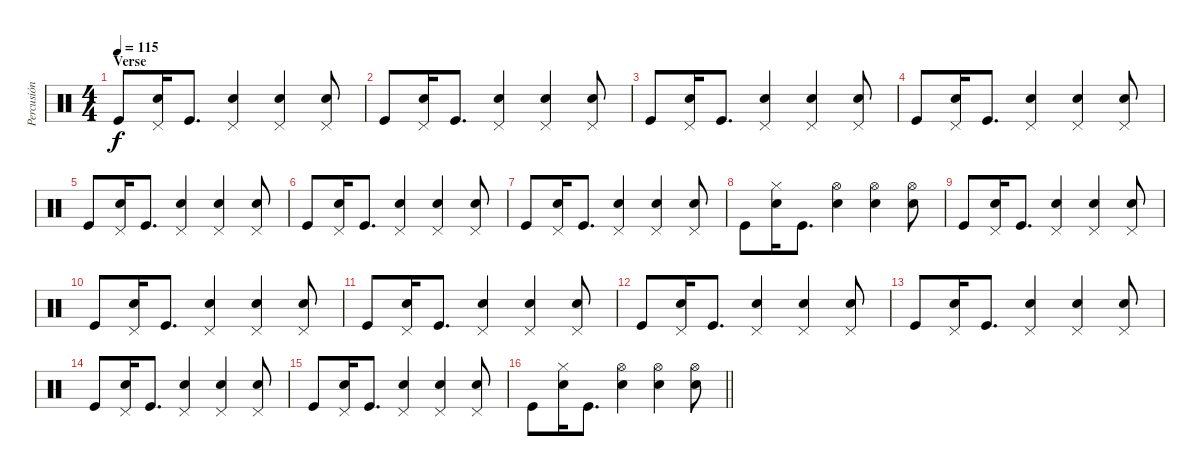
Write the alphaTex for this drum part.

\track ("Percusión" "Percusión") {instrument percussion}
\staff {score}
\articulation defaults
\ts (4 4)
\section ("" "Verse")
\tempo 115
\clef neutral
\ks c "Kick (hit)".8{dy f}
("Electric Snare (hit)" "Pedal Hi-Hat (hit)").16 "Kick (hit)".8{d} ("Electric Snare (hit)" "Pedal Hi-Hat (hit)").4 ("Electric Snare (hit)" "Pedal Hi-Hat (hit)").4 ("Electric Snare (hit)" "Pedal Hi-Hat (hit)").8 |
"Kick (hit)".8 ("Electric Snare (hit)" "Pedal Hi-Hat (hit)").16 "Kick (hit)".8{d} ("Electric Snare (hit)" "Pedal Hi-Hat (hit)").4 ("Electric Snare (hit)" "Pedal Hi-Hat (hit)").4 ("Electric Snare (hit)" "Pedal Hi-Hat (hit)").8 |
"Kick (hit)".8 ("Electric Snare (hit)" "Pedal Hi-Hat (hit)").16 "Kick (hit)".8{d} ("Electric Snare (hit)" "Pedal Hi-Hat (hit)").4 ("Electric Snare (hit)" "Pedal Hi-Hat (hit)").4 ("Electric Snare (hit)" "Pedal Hi-Hat (hit)").8 |
"Kick (hit)".8 ("Electric Snare (hit)" "Pedal Hi-Hat (hit)").16 "Kick (hit)".8{d} ("Electric Snare (hit)" "Pedal Hi-Hat (hit)").4 ("Electric Snare (hit)" "Pedal Hi-Hat (hit)").4 ("Electric Snare (hit)" "Pedal Hi-Hat (hit)").8 |
"Kick (hit)".8 ("Electric Snare (hit)" "Pedal Hi-Hat (hit)").16 "Kick (hit)".8{d} ("Electric Snare (hit)" "Pedal Hi-Hat (hit)").4 ("Electric Snare (hit)" "Pedal Hi-Hat (hit)").4 ("Electric Snare (hit)" "Pedal Hi-Hat (hit)").8 |
"Kick (hit)".8 ("Electric Snare (hit)" "Pedal Hi-Hat (hit)").16 "Kick (hit)".8{d} ("Electric Snare (hit)" "Pedal Hi-Hat (hit)").4 ("Electric Snare (hit)" "Pedal Hi-Hat (hit)").4 ("Electric Snare (hit)" "Pedal Hi-Hat (hit)").8 |
"Kick (hit)".8 ("Electric Snare (hit)" "Pedal Hi-Hat (hit)").16 "Kick (hit)".8{d} ("Electric Snare (hit)" "Pedal Hi-Hat (hit)").4 ("Electric Snare (hit)" "Pedal Hi-Hat (hit)").4 ("Electric Snare (hit)" "Pedal Hi-Hat (hit)").8 |
"Kick (hit)".8 ("Electric Snare (hit)" "Hi-Hat (closed)").16 "Kick (hit)".8{d} ("Electric Snare (hit)" "Hi-Hat (open)").4 ("Electric Snare (hit)" "Hi-Hat (open)").4 ("Electric Snare (hit)" "Hi-Hat (open)").8 |
"Kick (hit)".8 ("Electric Snare (hit)" "Pedal Hi-Hat (hit)").16 "Kick (hit)".8{d} ("Electric Snare (hit)" "Pedal Hi-Hat (hit)").4 ("Electric Snare (hit)" "Pedal Hi-Hat (hit)").4 ("Electric Snare (hit)" "Pedal Hi-Hat (hit)").8 |
"Kick (hit)".8 ("Electric Snare (hit)" "Pedal Hi-Hat (hit)").16 "Kick (hit)".8{d} ("Electric Snare (hit)" "Pedal Hi-Hat (hit)").4 ("Electric Snare (hit)" "Pedal Hi-Hat (hit)").4 ("Electric Snare (hit)" "Pedal Hi-Hat (hit)").8 |
"Kick (hit)".8 ("Electric Snare (hit)" "Pedal Hi-Hat (hit)").16 "Kick (hit)".8{d} ("Electric Snare (hit)" "Pedal Hi-Hat (hit)").4 ("Electric Snare (hit)" "Pedal Hi-Hat (hit)").4 ("Electric Snare (hit)" "Pedal Hi-Hat (hit)").8 |
"Kick (hit)".8 ("Electric Snare (hit)" "Pedal Hi-Hat (hit)").16 "Kick (hit)".8{d} ("Electric Snare (hit)" "Pedal Hi-Hat (hit)").4 ("Electric Snare (hit)" "Pedal Hi-Hat (hit)").4 ("Electric Snare (hit)" "Pedal Hi-Hat (hit)").8 |
"Kick (hit)".8 ("Electric Snare (hit)" "Pedal Hi-Hat (hit)").16 "Kick (hit)".8{d} ("Electric Snare (hit)" "Pedal Hi-Hat (hit)").4 ("Electric Snare (hit)" "Pedal Hi-Hat (hit)").4 ("Electric Snare (hit)" "Pedal Hi-Hat (hit)").8 |
"Kick (hit)".8 ("Electric Snare (hit)" "Pedal Hi-Hat (hit)").16 "Kick (hit)".8{d} ("Electric Snare (hit)" "Pedal Hi-Hat (hit)").4 ("Electric Snare (hit)" "Pedal Hi-Hat (hit)").4 ("Electric Snare (hit)" "Pedal Hi-Hat (hit)").8 |
"Kick (hit)".8 ("Electric Snare (hit)" "Pedal Hi-Hat (hit)").16 "Kick (hit)".8{d} ("Electric Snare (hit)" "Pedal Hi-Hat (hit)").4 ("Electric Snare (hit)" "Pedal Hi-Hat (hit)").4 ("Electric Snare (hit)" "Pedal Hi-Hat (hit)").8 |
\barLineRight lightlight "Kick (hit)".8
("Electric Snare (hit)" "Hi-Hat (closed)").16 "Kick (hit)".8{d} ("Electric Snare (hit)" "Hi-Hat (open)").4 ("Electric Snare (hit)" "Hi-Hat (open)").4 ("Electric Snare (hit)" "Hi-Hat (open)").8
